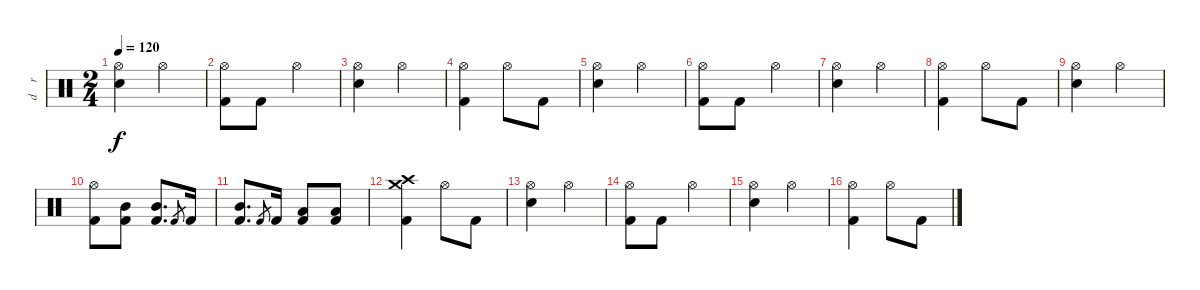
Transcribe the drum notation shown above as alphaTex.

\track ("d    r    u  m  s" "d    r    ") {instrument percussion}
\staff {score}
\articulation defaults
\ts (2 4)
\tempo 120
\clef neutral
\ks c
("Hi-Hat (open)" "Snare (hit) 2").4{dy f} "Hi-Hat (open)".4 |
("Hi-Hat (open)" "Kick (hit) 2").8 "Kick (hit) 2".8 "Hi-Hat (open)".4 |
("Hi-Hat (open)" "Snare (hit) 2").4 "Hi-Hat (open)".4 |
("Hi-Hat (open)" "Kick (hit) 2").4 "Hi-Hat (open)".8 "Kick (hit) 2".8 |
("Hi-Hat (open)" "Snare (hit) 2").4 "Hi-Hat (open)".4 |
("Hi-Hat (open)" "Kick (hit) 2").8 "Kick (hit) 2".8 "Hi-Hat (open)".4 |
("Hi-Hat (open)" "Snare (hit) 2").4 "Hi-Hat (open)".4 |
("Hi-Hat (open)" "Kick (hit) 2").4 "Hi-Hat (open)".8 "Kick (hit) 2".8 |
("Hi-Hat (open)" "Snare (hit) 2").4 "Hi-Hat (open)".4 |
("Hi-Hat (open)" "Kick (hit) 2").8 ("Mid Tom (hit)" "Kick (hit) 2").8 ("Mid Tom (hit)" "Kick (hit) 2").8{d} "Kick (hit) 2".8{gr} "Kick (hit) 2".16 |
("Mid Tom (hit)" "Kick (hit) 2").8{d} "Kick (hit) 2".8{gr} "Kick (hit) 2".16 ("Low Tom (hit)" "Kick (hit) 2").8 ("Low Tom (hit)" "Kick (hit) 2").8 |
("Crash high (hit)" "Crash medium (hit)" "Kick (hit) 2").4 "Hi-Hat (open)".8 "Kick (hit) 2".8 |
("Hi-Hat (open)" "Snare (hit) 2").4 "Hi-Hat (open)".4 |
("Hi-Hat (open)" "Kick (hit) 2").8 "Kick (hit) 2".8 "Hi-Hat (open)".4 |
("Hi-Hat (open)" "Snare (hit) 2").4 "Hi-Hat (open)".4 |
("Hi-Hat (open)" "Kick (hit) 2").4 "Hi-Hat (open)".8 "Kick (hit) 2".8
